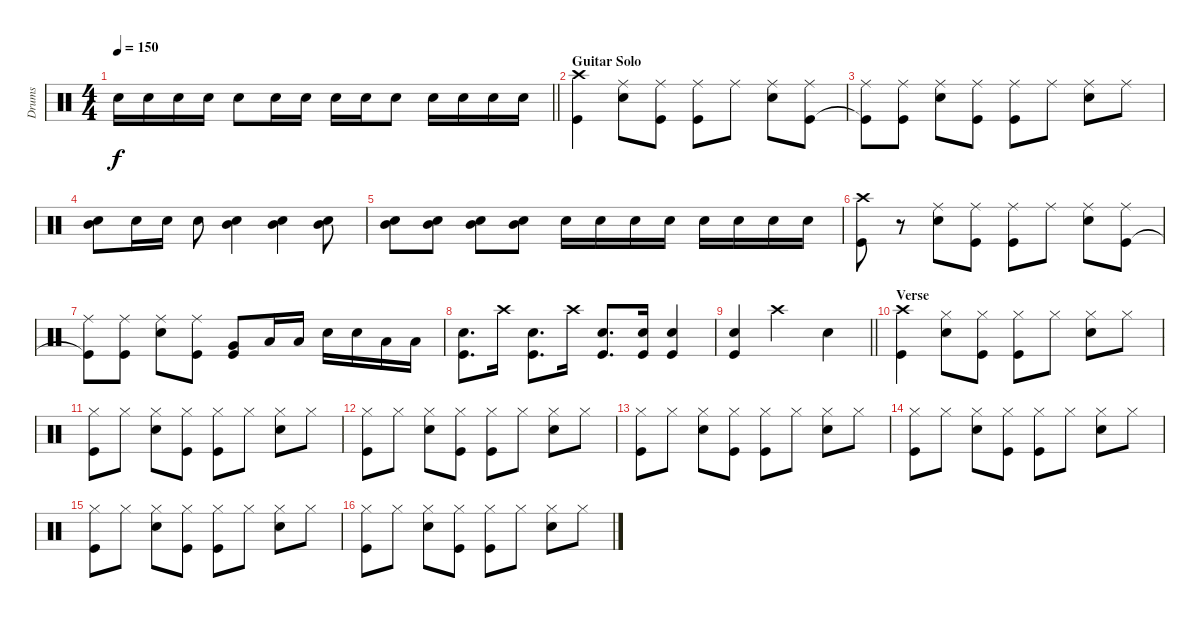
\track ("Drums" "Drums") {instrument percussion}
\staff {score}
\articulation defaults
\ts (4 4)
\tempo 150
\clef neutral
\barLineRight lightlight
\ks c "Snare (hit) 2".16{dy f} "Snare (hit) 2".16 "Snare (hit) 2".16 "Snare (hit) 2".16 "Snare (hit) 2".8 "Snare (hit) 2".16 "Snare (hit) 2".16 "Snare (hit) 2".16 "Snare (hit) 2".16 "Snare (hit) 2".8 "Snare (hit) 2".16 "Snare (hit) 2".16 "Snare (hit) 2".16 "Snare (hit) 2".16
|
\section ("" "Guitar Solo")
("Crash high (hit)" "Kick (hit)").4 ("Ride (middle)" "Snare (hit) 2").8 ("Ride (middle)" "Kick (hit)").8 ("Ride (middle)" "Kick (hit)").8 "Ride (middle)".8 ("Ride (middle)" "Snare (hit) 2").8 ("Ride (middle)" "Kick (hit)").8 |
("Ride (middle)" "Kick (hit)"{t}).8 ("Ride (middle)" "Kick (hit)").8 ("Ride (middle)" "Snare (hit) 2").8 ("Ride (middle)" "Kick (hit)").8 ("Ride (middle)" "Kick (hit)").8 "Ride (middle)".8 ("Ride (middle)" "Snare (hit) 2").8 "Ride (middle)".8 |
("Mid Tom (hit)" "Snare (hit) 2").8 "Snare (hit) 2".16 "Snare (hit) 2".16 "Snare (hit) 2".8 ("Mid Tom (hit)" "Snare (hit) 2").4 ("Mid Tom (hit)" "Snare (hit) 2").4 ("Mid Tom (hit)" "Snare (hit) 2").8 |
("Mid Tom (hit)" "Snare (hit) 2").8 ("Mid Tom (hit)" "Snare (hit) 2").8 ("Mid Tom (hit)" "Snare (hit) 2").8 ("Mid Tom (hit)" "Snare (hit) 2").8 "Snare (hit) 2".16 "Snare (hit) 2".16 "Snare (hit) 2".16 "Snare (hit) 2".16 "Snare (hit) 2".16 "Snare (hit) 2".16 "Snare (hit) 2".16 "Snare (hit) 2".16 |
("Crash high (hit)" "Kick (hit)").8 r.8 ("Ride (middle)" "Snare (hit) 2").8 ("Ride (middle)" "Kick (hit)").8 ("Ride (middle)" "Kick (hit)").8 "Ride (middle)".8 ("Ride (middle)" "Snare (hit) 2").8 ("Ride (middle)" "Kick (hit)").8 |
("Ride (middle)" "Kick (hit)"{t}).8 ("Ride (middle)" "Kick (hit)").8 ("Ride (middle)" "Snare (hit) 2").8 ("Ride (middle)" "Kick (hit)").8 ("Very Low Tom (hit)" "Kick (hit)").8 "Low Floor Tom (hit)".16 "Low Floor Tom (hit)".16 "Snare (hit) 2".16 "Snare (hit) 2".16 "Low Floor Tom (hit)".16 "Low Floor Tom (hit)".16 |
("Snare (hit) 2" "Kick (hit)").8{d} "Crash high (hit)".16 ("Snare (hit) 2" "Kick (hit)").8{d} "Crash high (hit)".16 ("Snare (hit) 2" "Kick (hit)").8{d} ("Snare (hit) 2" "Kick (hit)").16 ("Snare (hit) 2" "Kick (hit)").4 |
\barLineRight lightlight
("Snare (hit) 2" "Kick (hit)").4 "Crash high (hit)".2 "Snare (hit) 2".4 |
\section ("" "Verse")
("Crash high (hit)" "Kick (hit)").4 ("Hi-Hat (closed)" "Snare (hit) 2").8 ("Hi-Hat (closed)" "Kick (hit)").8 ("Hi-Hat (closed)" "Kick (hit)").8 "Hi-Hat (closed)".8 ("Hi-Hat (closed)" "Snare (hit) 2").8 "Hi-Hat (closed)".8 |
("Hi-Hat (closed)" "Kick (hit)").8 "Hi-Hat (closed)".8 ("Hi-Hat (closed)" "Snare (hit) 2").8 ("Hi-Hat (closed)" "Kick (hit)").8 ("Hi-Hat (closed)" "Kick (hit)").8 "Hi-Hat (closed)".8 ("Hi-Hat (closed)" "Snare (hit) 2").8 "Hi-Hat (closed)".8 |
("Hi-Hat (closed)" "Kick (hit)").8 "Hi-Hat (closed)".8 ("Hi-Hat (closed)" "Snare (hit) 2").8 ("Hi-Hat (closed)" "Kick (hit)").8 ("Hi-Hat (closed)" "Kick (hit)").8 "Hi-Hat (closed)".8 ("Hi-Hat (closed)" "Snare (hit) 2").8 "Hi-Hat (closed)".8 |
("Hi-Hat (closed)" "Kick (hit)").8 "Hi-Hat (closed)".8 ("Hi-Hat (closed)" "Snare (hit) 2").8 ("Hi-Hat (closed)" "Kick (hit)").8 ("Hi-Hat (closed)" "Kick (hit)").8 "Hi-Hat (closed)".8 ("Hi-Hat (closed)" "Snare (hit) 2").8 "Hi-Hat (closed)".8 |
("Hi-Hat (closed)" "Kick (hit)").8 "Hi-Hat (closed)".8 ("Hi-Hat (closed)" "Snare (hit) 2").8 ("Hi-Hat (closed)" "Kick (hit)").8 ("Hi-Hat (closed)" "Kick (hit)").8 "Hi-Hat (closed)".8 ("Hi-Hat (closed)" "Snare (hit) 2").8 "Hi-Hat (closed)".8 |
("Hi-Hat (closed)" "Kick (hit)").8 "Hi-Hat (closed)".8 ("Hi-Hat (closed)" "Snare (hit) 2").8 ("Hi-Hat (closed)" "Kick (hit)").8 ("Hi-Hat (closed)" "Kick (hit)").8 "Hi-Hat (closed)".8 ("Hi-Hat (closed)" "Snare (hit) 2").8 "Hi-Hat (closed)".8 |
("Hi-Hat (closed)" "Kick (hit)").8 "Hi-Hat (closed)".8 ("Hi-Hat (closed)" "Snare (hit) 2").8 ("Hi-Hat (closed)" "Kick (hit)").8 ("Hi-Hat (closed)" "Kick (hit)").8 "Hi-Hat (closed)".8 ("Hi-Hat (closed)" "Snare (hit) 2").8 "Hi-Hat (closed)".8
